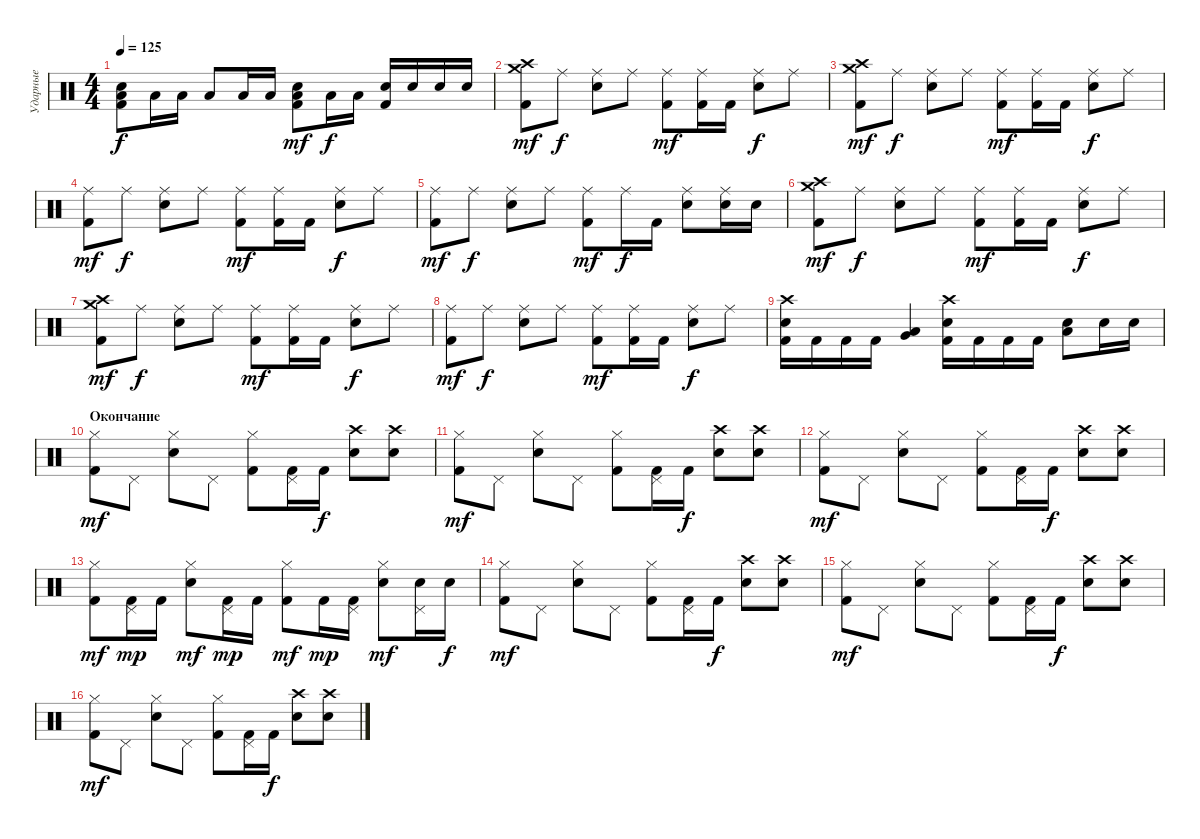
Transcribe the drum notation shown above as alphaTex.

\track ("Ударные" "Ударные") {instrument percussion}
\staff {score}
\articulation defaults
\ts (4 4)
\tempo 125
\clef neutral
\ks c
("Snare (hit) 2" "Kick (hit) 2" "Low Floor Tom (hit)").8{dy f} "Low Floor Tom (hit)".16 "Low Floor Tom (hit)".16 "Low Floor Tom (hit)".8 "Low Floor Tom (hit)".16 "Low Floor Tom (hit)".16 ("Snare (hit) 2" "Kick (hit) 2" "Low Floor Tom (hit)").8{dy mf} "Low Floor Tom (hit)".16{dy f} "Low Floor Tom (hit)".16 ("Snare (hit) 2" "Kick (hit) 2").16 "Snare (hit) 2".16 "Snare (hit) 2".16 "Snare (hit) 2".16 |
("Crash high (hit)" "Crash medium (hit)" "Kick (hit) 2").8{dy mf} "Ride (middle)".8{dy f} ("Ride (middle)" "Snare (hit) 2").8 "Ride (middle)".8 ("Ride (middle)" "Kick (hit) 2").8{dy mf} ("Ride (middle)" "Kick (hit) 2").16 "Kick (hit) 2".16 ("Ride (middle)" "Snare (hit) 2").8{dy f} "Ride (middle)".8 |
("Crash high (hit)" "Crash medium (hit)" "Kick (hit) 2").8{dy mf} "Ride (middle)".8{dy f} ("Ride (middle)" "Snare (hit) 2").8 "Ride (middle)".8 ("Ride (middle)" "Kick (hit) 2").8{dy mf} ("Ride (middle)" "Kick (hit) 2").16 "Kick (hit) 2".16 ("Ride (middle)" "Snare (hit) 2").8{dy f} "Ride (middle)".8 |
("Ride (middle)" "Kick (hit) 2").8{dy mf} "Ride (middle)".8{dy f} ("Ride (middle)" "Snare (hit) 2").8 "Ride (middle)".8 ("Ride (middle)" "Kick (hit) 2").8{dy mf} ("Ride (middle)" "Kick (hit) 2").16 "Kick (hit) 2".16 ("Ride (middle)" "Snare (hit) 2").8{dy f} "Ride (middle)".8 |
("Ride (middle)" "Kick (hit) 2").8{dy mf} "Ride (middle)".8{dy f} ("Ride (middle)" "Snare (hit) 2").8 "Ride (middle)".8 ("Ride (middle)" "Kick (hit) 2").8{dy mf} "Ride (middle)".16{dy f} "Kick (hit) 2".16 ("Ride (middle)" "Snare (hit) 2").8 ("Ride (middle)" "Snare (hit) 2").16 "Snare (hit) 2".16 |
("Crash high (hit)" "Crash medium (hit)" "Kick (hit) 2").8{dy mf} "Ride (middle)".8{dy f} ("Ride (middle)" "Snare (hit) 2").8 "Ride (middle)".8 ("Ride (middle)" "Kick (hit) 2").8{dy mf} ("Ride (middle)" "Kick (hit) 2").16 "Kick (hit) 2".16 ("Ride (middle)" "Snare (hit) 2").8{dy f} "Ride (middle)".8 |
("Crash high (hit)" "Crash medium (hit)" "Kick (hit) 2").8{dy mf} "Ride (middle)".8{dy f} ("Ride (middle)" "Snare (hit) 2").8 "Ride (middle)".8 ("Ride (middle)" "Kick (hit) 2").8{dy mf} ("Ride (middle)" "Kick (hit) 2").16 "Kick (hit) 2".16 ("Ride (middle)" "Snare (hit) 2").8{dy f} "Ride (middle)".8 |
("Ride (middle)" "Kick (hit) 2").8{dy mf} "Ride (middle)".8{dy f} ("Ride (middle)" "Snare (hit) 2").8 "Ride (middle)".8 ("Ride (middle)" "Kick (hit) 2").8{dy mf} ("Ride (middle)" "Kick (hit) 2").16 "Kick (hit) 2".16 ("Ride (middle)" "Snare (hit) 2").8{dy f} "Ride (middle)".8 |
("Crash high (hit)" "Snare (hit) 2" "Kick (hit) 2").16 "Kick (hit) 2".16 "Kick (hit) 2".16 "Kick (hit) 2".16 ("Low Floor Tom (hit)" "Very Low Tom (hit)").4 ("Crash high (hit)" "Snare (hit) 2" "Kick (hit) 2").16 "Kick (hit) 2".16 "Kick (hit) 2".16 "Kick (hit) 2".16 ("Snare (hit) 2" "Low Floor Tom (hit)").8 "Snare (hit) 2".16 "Snare (hit) 2".16 |
\section ("" "Окончание")
("Hi-Hat (closed)" "Kick (hit) 2").8{dy mf} "Pedal Hi-Hat (hit)".8 ("Hi-Hat (closed)" "Snare (hit) 2").8 "Pedal Hi-Hat (hit)".8 ("Hi-Hat (closed)" "Kick (hit) 2").8 ("Pedal Hi-Hat (hit)" "Kick (hit) 2").16 "Kick (hit) 2".16{dy f} ("Crash high (hit)" "Snare (hit) 2").8 ("Crash high (hit)" "Snare (hit) 2").8 |
("Hi-Hat (closed)" "Kick (hit) 2").8{dy mf} "Pedal Hi-Hat (hit)".8 ("Hi-Hat (closed)" "Snare (hit) 2").8 "Pedal Hi-Hat (hit)".8 ("Hi-Hat (closed)" "Kick (hit) 2").8 ("Pedal Hi-Hat (hit)" "Kick (hit) 2").16 "Kick (hit) 2".16{dy f} ("Crash high (hit)" "Snare (hit) 2").8 ("Crash high (hit)" "Snare (hit) 2").8 |
("Hi-Hat (closed)" "Kick (hit) 2").8{dy mf} "Pedal Hi-Hat (hit)".8 ("Hi-Hat (closed)" "Snare (hit) 2").8 "Pedal Hi-Hat (hit)".8 ("Hi-Hat (closed)" "Kick (hit) 2").8 ("Pedal Hi-Hat (hit)" "Kick (hit) 2").16 "Kick (hit) 2".16{dy f} ("Crash high (hit)" "Snare (hit) 2").8 ("Crash high (hit)" "Snare (hit) 2").8 |
("Hi-Hat (closed)" "Kick (hit) 2").8{dy mf} ("Pedal Hi-Hat (hit)" "Kick (hit) 2").16{dy mp} "Kick (hit) 2".16 ("Hi-Hat (closed)" "Snare (hit) 2").8{dy mf} ("Pedal Hi-Hat (hit)" "Kick (hit) 2").16{dy mp} "Kick (hit) 2".16 ("Hi-Hat (closed)" "Kick (hit) 2").8{dy mf} "Kick (hit) 2".16{dy mp} ("Pedal Hi-Hat (hit)" "Kick (hit) 2").16 ("Hi-Hat (closed)" "Snare (hit) 2").8{dy mf} ("Pedal Hi-Hat (hit)" "Snare (hit) 2").16 "Snare (hit) 2".16{dy f} |
("Hi-Hat (closed)" "Kick (hit) 2").8{dy mf} "Pedal Hi-Hat (hit)".8 ("Hi-Hat (closed)" "Snare (hit) 2").8 "Pedal Hi-Hat (hit)".8 ("Hi-Hat (closed)" "Kick (hit) 2").8 ("Pedal Hi-Hat (hit)" "Kick (hit) 2").16 "Kick (hit) 2".16{dy f} ("Crash high (hit)" "Snare (hit) 2").8 ("Crash high (hit)" "Snare (hit) 2").8 |
("Hi-Hat (closed)" "Kick (hit) 2").8{dy mf} "Pedal Hi-Hat (hit)".8 ("Hi-Hat (closed)" "Snare (hit) 2").8 "Pedal Hi-Hat (hit)".8 ("Hi-Hat (closed)" "Kick (hit) 2").8 ("Pedal Hi-Hat (hit)" "Kick (hit) 2").16 "Kick (hit) 2".16{dy f} ("Crash high (hit)" "Snare (hit) 2").8 ("Crash high (hit)" "Snare (hit) 2").8 |
("Hi-Hat (closed)" "Kick (hit) 2").8{dy mf} "Pedal Hi-Hat (hit)".8 ("Hi-Hat (closed)" "Snare (hit) 2").8 "Pedal Hi-Hat (hit)".8 ("Hi-Hat (closed)" "Kick (hit) 2").8 ("Pedal Hi-Hat (hit)" "Kick (hit) 2").16 "Kick (hit) 2".16{dy f} ("Crash high (hit)" "Snare (hit) 2").8 ("Crash high (hit)" "Snare (hit) 2").8
